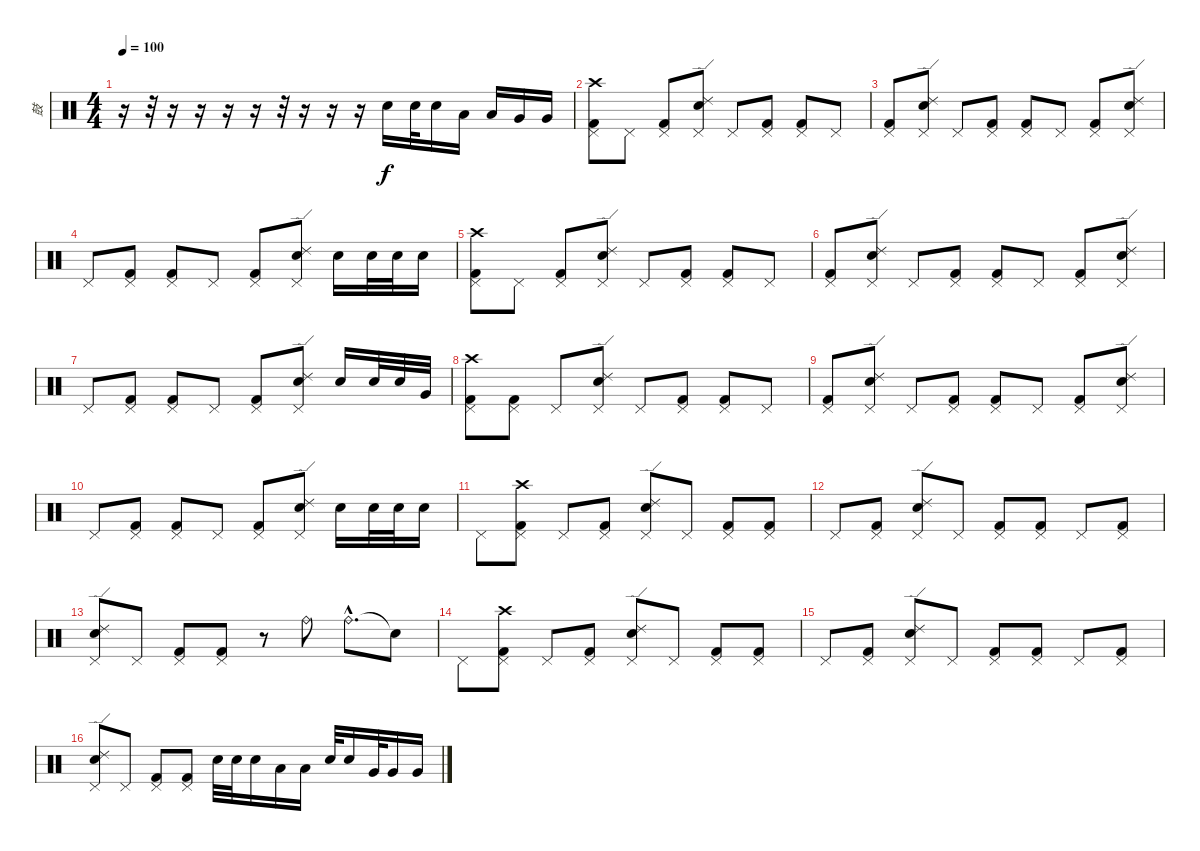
\track ("鼓" "鼓") {instrument percussion}
\staff {score}
\articulation defaults
\ts (4 4)
\tempo 100
\clef neutral
\ks c
r.16{dy f} r.32 r.16 r.16 r.16 r.16 r.32 r.16 r.16 r.16 "Electric Snare (hit)".16 "Electric Snare (hit)".32 "Electric Snare (hit)".16 "Low Tom (hit)".16 "Low Tom (hit)".16 "Very Low Tom (hit)".16 "Very Low Tom (hit)".16 |
("Crash high (hit)" "Pedal Hi-Hat (hit)" "Kick (hit) 2").8 "Pedal Hi-Hat (hit)".8 ("Pedal Hi-Hat (hit)" "Kick (hit) 2").8 ("Ride (edge) 2" "Pedal Hi-Hat (hit)" "Electric Snare (hit)").8 "Pedal Hi-Hat (hit)".8 ("Pedal Hi-Hat (hit)" "Kick (hit) 2").8 ("Pedal Hi-Hat (hit)" "Kick (hit) 2").8 "Pedal Hi-Hat (hit)".8 |
("Pedal Hi-Hat (hit)" "Kick (hit) 2").8 ("Ride (edge) 2" "Pedal Hi-Hat (hit)" "Electric Snare (hit)").8 "Pedal Hi-Hat (hit)".8 ("Pedal Hi-Hat (hit)" "Kick (hit) 2").8 ("Pedal Hi-Hat (hit)" "Kick (hit) 2").8 "Pedal Hi-Hat (hit)".8 ("Pedal Hi-Hat (hit)" "Kick (hit) 2").8 ("Ride (edge) 2" "Pedal Hi-Hat (hit)" "Electric Snare (hit)").8 |
"Pedal Hi-Hat (hit)".8 ("Pedal Hi-Hat (hit)" "Kick (hit) 2").8 ("Pedal Hi-Hat (hit)" "Kick (hit) 2").8 "Pedal Hi-Hat (hit)".8 ("Pedal Hi-Hat (hit)" "Kick (hit) 2").8 ("Ride (edge) 2" "Pedal Hi-Hat (hit)" "Electric Snare (hit)").8 "Electric Snare (hit)".16 "Electric Snare (hit)".32 "Electric Snare (hit)".32 "Electric Snare (hit)".16 |
("Crash high (hit)" "Pedal Hi-Hat (hit)" "Kick (hit) 2").8 "Pedal Hi-Hat (hit)".8 ("Pedal Hi-Hat (hit)" "Kick (hit) 2").8 ("Ride (edge) 2" "Pedal Hi-Hat (hit)" "Electric Snare (hit)").8 "Pedal Hi-Hat (hit)".8 ("Pedal Hi-Hat (hit)" "Kick (hit) 2").8 ("Pedal Hi-Hat (hit)" "Kick (hit) 2").8 "Pedal Hi-Hat (hit)".8 |
("Pedal Hi-Hat (hit)" "Kick (hit) 2").8 ("Ride (edge) 2" "Pedal Hi-Hat (hit)" "Electric Snare (hit)").8 "Pedal Hi-Hat (hit)".8 ("Pedal Hi-Hat (hit)" "Kick (hit) 2").8 ("Pedal Hi-Hat (hit)" "Kick (hit) 2").8 "Pedal Hi-Hat (hit)".8 ("Pedal Hi-Hat (hit)" "Kick (hit) 2").8 ("Ride (edge) 2" "Pedal Hi-Hat (hit)" "Electric Snare (hit)").8 |
"Pedal Hi-Hat (hit)".8 ("Pedal Hi-Hat (hit)" "Kick (hit) 2").8 ("Pedal Hi-Hat (hit)" "Kick (hit) 2").8 "Pedal Hi-Hat (hit)".8 ("Pedal Hi-Hat (hit)" "Kick (hit) 2").8 ("Ride (edge) 2" "Pedal Hi-Hat (hit)" "Electric Snare (hit)").8 "Electric Snare (hit)".16 "Electric Snare (hit)".32 "Electric Snare (hit)".32 "Very Low Tom (hit)".32 |
("Crash high (hit)" "Pedal Hi-Hat (hit)" "Kick (hit) 2").8 ("Pedal Hi-Hat (hit)" "Kick (hit) 2").8 "Pedal Hi-Hat (hit)".8 ("Ride (edge) 2" "Pedal Hi-Hat (hit)" "Electric Snare (hit)").8 "Pedal Hi-Hat (hit)".8 ("Pedal Hi-Hat (hit)" "Kick (hit) 2").8 ("Pedal Hi-Hat (hit)" "Kick (hit) 2").8 "Pedal Hi-Hat (hit)".8 |
("Pedal Hi-Hat (hit)" "Kick (hit) 2").8 ("Ride (edge) 2" "Pedal Hi-Hat (hit)" "Electric Snare (hit)").8 "Pedal Hi-Hat (hit)".8 ("Pedal Hi-Hat (hit)" "Kick (hit) 2").8 ("Pedal Hi-Hat (hit)" "Kick (hit) 2").8 "Pedal Hi-Hat (hit)".8 ("Pedal Hi-Hat (hit)" "Kick (hit) 2").8 ("Ride (edge) 2" "Pedal Hi-Hat (hit)" "Electric Snare (hit)").8 |
"Pedal Hi-Hat (hit)".8 ("Pedal Hi-Hat (hit)" "Kick (hit) 2").8 ("Pedal Hi-Hat (hit)" "Kick (hit) 2").8 "Pedal Hi-Hat (hit)".8 ("Pedal Hi-Hat (hit)" "Kick (hit) 2").8 ("Ride (edge) 2" "Pedal Hi-Hat (hit)" "Electric Snare (hit)").8 "Electric Snare (hit)".16 "Electric Snare (hit)".32 "Electric Snare (hit)".32 "Electric Snare (hit)".16 |
"Pedal Hi-Hat (hit)".8 ("Crash high (hit)" "Pedal Hi-Hat (hit)" "Kick (hit) 2").8 "Pedal Hi-Hat (hit)".8 ("Pedal Hi-Hat (hit)" "Kick (hit) 2").8 ("Ride (edge) 2" "Pedal Hi-Hat (hit)" "Electric Snare (hit)").8 "Pedal Hi-Hat (hit)".8 ("Pedal Hi-Hat (hit)" "Kick (hit) 2").8 ("Pedal Hi-Hat (hit)" "Kick (hit) 2").8 |
"Pedal Hi-Hat (hit)".8 ("Pedal Hi-Hat (hit)" "Kick (hit) 2").8 ("Ride (edge) 2" "Pedal Hi-Hat (hit)" "Electric Snare (hit)").8 "Pedal Hi-Hat (hit)".8 ("Pedal Hi-Hat (hit)" "Kick (hit) 2").8 ("Pedal Hi-Hat (hit)" "Kick (hit) 2").8 "Pedal Hi-Hat (hit)".8 ("Pedal Hi-Hat (hit)" "Kick (hit) 2").8 |
("Ride (edge) 2" "Pedal Hi-Hat (hit)" "Electric Snare (hit)").8 "Pedal Hi-Hat (hit)".8 ("Pedal Hi-Hat (hit)" "Kick (hit) 2").8 ("Pedal Hi-Hat (hit)" "Kick (hit) 2").8 r.8 "Ride (bell)".8 "Ride (bell)"{hac}.8{d} "Snare (hit)"{t}.8 |
"Pedal Hi-Hat (hit)".8 ("Crash high (hit)" "Pedal Hi-Hat (hit)" "Kick (hit) 2").8 "Pedal Hi-Hat (hit)".8 ("Pedal Hi-Hat (hit)" "Kick (hit) 2").8 ("Ride (edge) 2" "Pedal Hi-Hat (hit)" "Electric Snare (hit)").8 "Pedal Hi-Hat (hit)".8 ("Pedal Hi-Hat (hit)" "Kick (hit) 2").8 ("Pedal Hi-Hat (hit)" "Kick (hit) 2").8 |
"Pedal Hi-Hat (hit)".8 ("Pedal Hi-Hat (hit)" "Kick (hit) 2").8 ("Ride (edge) 2" "Pedal Hi-Hat (hit)" "Electric Snare (hit)").8 "Pedal Hi-Hat (hit)".8 ("Pedal Hi-Hat (hit)" "Kick (hit) 2").8 ("Pedal Hi-Hat (hit)" "Kick (hit) 2").8 "Pedal Hi-Hat (hit)".8 ("Pedal Hi-Hat (hit)" "Kick (hit) 2").8 |
("Ride (edge) 2" "Pedal Hi-Hat (hit)" "Electric Snare (hit)").8 "Pedal Hi-Hat (hit)".8 ("Pedal Hi-Hat (hit)" "Kick (hit) 2").8 ("Pedal Hi-Hat (hit)" "Kick (hit) 2").8 "Electric Snare (hit)".32 "Electric Snare (hit)".32 "Electric Snare (hit)".16 "Low Tom (hit)".16 "Low Tom (hit)".16 "Electric Snare (hit)".32 "Electric Snare (hit)".16 "Very Low Tom (hit)".32 "Very Low Tom (hit)".16 "Very Low Tom (hit)".16
